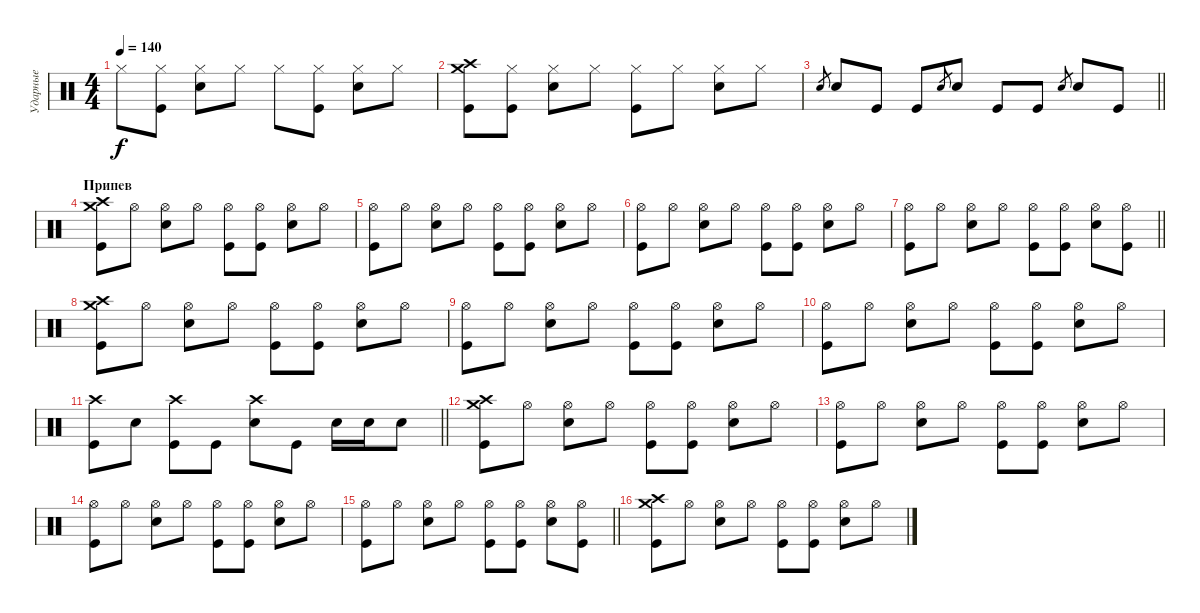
\track ("Ударные" "Ударные") {instrument percussion}
\staff {score}
\articulation defaults
\ts (4 4)
\tempo 140
\clef neutral
\ks c "Hi-Hat (closed)".8{dy f}
("Hi-Hat (closed)" "Kick (hit)").8 ("Hi-Hat (closed)" "Snare (hit) 2").8 "Hi-Hat (closed)".8 "Hi-Hat (closed)".8 ("Hi-Hat (closed)" "Kick (hit)").8 ("Hi-Hat (closed)" "Snare (hit) 2").8 "Hi-Hat (closed)".8 |
("Crash high (hit)" "Crash medium (hit)" "Kick (hit)").8 ("Hi-Hat (closed)" "Kick (hit)").8 ("Hi-Hat (closed)" "Snare (hit) 2").8 "Hi-Hat (closed)".8 ("Hi-Hat (closed)" "Kick (hit)").8 "Hi-Hat (closed)".8 ("Hi-Hat (closed)" "Snare (hit) 2").8 "Hi-Hat (closed)".8 |
\barLineRight lightlight "Snare (hit) 2".8{gr} "Snare (hit) 2".8 "Kick (hit)".8 "Kick (hit)".8 "Snare (hit) 2".8{gr} "Snare (hit) 2".8 "Kick (hit)".8 "Kick (hit)".8 "Snare (hit) 2".8{gr} "Snare (hit) 2".8 "Kick (hit)".8
|
\section ("" "Припев")
("Crash medium (hit)" "Crash high (hit)" "Kick (hit)").8 "Hi-Hat (open)".8 ("Hi-Hat (open)" "Snare (hit) 2").8 "Hi-Hat (open)".8 ("Hi-Hat (open)" "Kick (hit)").8 ("Hi-Hat (open)" "Kick (hit)").8 ("Hi-Hat (open)" "Snare (hit) 2").8 "Hi-Hat (open)".8 |
("Hi-Hat (open)" "Kick (hit)").8 "Hi-Hat (open)".8 ("Hi-Hat (open)" "Snare (hit) 2").8 "Hi-Hat (open)".8 ("Hi-Hat (open)" "Kick (hit)").8 ("Hi-Hat (open)" "Kick (hit)").8 ("Hi-Hat (open)" "Snare (hit) 2").8 "Hi-Hat (open)".8 |
("Hi-Hat (open)" "Kick (hit)").8 "Hi-Hat (open)".8 ("Hi-Hat (open)" "Snare (hit) 2").8 "Hi-Hat (open)".8 ("Hi-Hat (open)" "Kick (hit)").8 ("Hi-Hat (open)" "Kick (hit)").8 ("Hi-Hat (open)" "Snare (hit) 2").8 "Hi-Hat (open)".8 |
\barLineRight lightlight
("Hi-Hat (open)" "Kick (hit)").8 "Hi-Hat (open)".8 ("Hi-Hat (open)" "Snare (hit) 2").8 "Hi-Hat (open)".8 ("Hi-Hat (open)" "Kick (hit)").8 ("Hi-Hat (open)" "Kick (hit)").8 ("Hi-Hat (open)" "Snare (hit) 2").8 ("Hi-Hat (open)" "Kick (hit)").8 |
("Crash medium (hit)" "Crash high (hit)" "Kick (hit)").8 "Hi-Hat (open)".8 ("Hi-Hat (open)" "Snare (hit) 2").8 "Hi-Hat (open)".8 ("Hi-Hat (open)" "Kick (hit)").8 ("Hi-Hat (open)" "Kick (hit)").8 ("Hi-Hat (open)" "Snare (hit) 2").8 "Hi-Hat (open)".8 |
("Hi-Hat (open)" "Kick (hit)").8 "Hi-Hat (open)".8 ("Hi-Hat (open)" "Snare (hit) 2").8 "Hi-Hat (open)".8 ("Hi-Hat (open)" "Kick (hit)").8 ("Hi-Hat (open)" "Kick (hit)").8 ("Hi-Hat (open)" "Snare (hit) 2").8 "Hi-Hat (open)".8 |
("Hi-Hat (open)" "Kick (hit)").8 "Hi-Hat (open)".8 ("Hi-Hat (open)" "Snare (hit) 2").8 "Hi-Hat (open)".8 ("Hi-Hat (open)" "Kick (hit)").8 ("Hi-Hat (open)" "Kick (hit)").8 ("Hi-Hat (open)" "Snare (hit) 2").8 "Hi-Hat (open)".8 |
\barLineRight lightlight
("Crash high (hit)" "Kick (hit)").8 "Snare (hit) 2".8 ("Crash high (hit)" "Kick (hit)").8 "Kick (hit)".8 ("Crash high (hit)" "Snare (hit) 2").8 "Kick (hit)".8 "Snare (hit) 2".16 "Snare (hit) 2".16 "Snare (hit) 2".8 |
("Crash medium (hit)" "Crash high (hit)" "Kick (hit)").8 "Hi-Hat (open)".8 ("Hi-Hat (open)" "Snare (hit) 2").8 "Hi-Hat (open)".8 ("Hi-Hat (open)" "Kick (hit)").8 ("Hi-Hat (open)" "Kick (hit)").8 ("Hi-Hat (open)" "Snare (hit) 2").8 "Hi-Hat (open)".8 |
("Hi-Hat (open)" "Kick (hit)").8 "Hi-Hat (open)".8 ("Hi-Hat (open)" "Snare (hit) 2").8 "Hi-Hat (open)".8 ("Hi-Hat (open)" "Kick (hit)").8 ("Hi-Hat (open)" "Kick (hit)").8 ("Hi-Hat (open)" "Snare (hit) 2").8 "Hi-Hat (open)".8 |
("Hi-Hat (open)" "Kick (hit)").8 "Hi-Hat (open)".8 ("Hi-Hat (open)" "Snare (hit) 2").8 "Hi-Hat (open)".8 ("Hi-Hat (open)" "Kick (hit)").8 ("Hi-Hat (open)" "Kick (hit)").8 ("Hi-Hat (open)" "Snare (hit) 2").8 "Hi-Hat (open)".8 |
\barLineRight lightlight
("Hi-Hat (open)" "Kick (hit)").8 "Hi-Hat (open)".8 ("Hi-Hat (open)" "Snare (hit) 2").8 "Hi-Hat (open)".8 ("Hi-Hat (open)" "Kick (hit)").8 ("Hi-Hat (open)" "Kick (hit)").8 ("Hi-Hat (open)" "Snare (hit) 2").8 ("Hi-Hat (open)" "Kick (hit)").8 |
("Crash medium (hit)" "Crash high (hit)" "Kick (hit)").8 "Hi-Hat (open)".8 ("Hi-Hat (open)" "Snare (hit) 2").8 "Hi-Hat (open)".8 ("Hi-Hat (open)" "Kick (hit)").8 ("Hi-Hat (open)" "Kick (hit)").8 ("Hi-Hat (open)" "Snare (hit) 2").8 "Hi-Hat (open)".8
